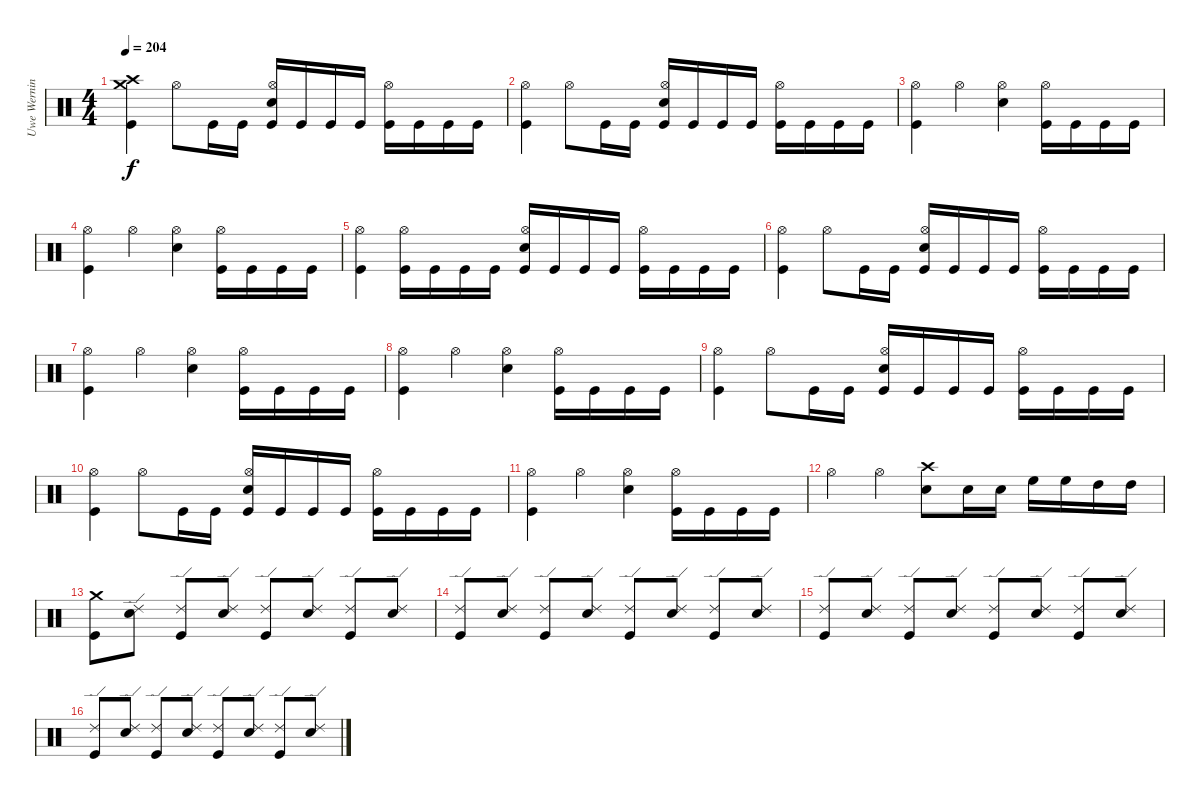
\track ("Uwe Werning" "Uwe Wernin") {instrument percussion}
\staff {score}
\articulation defaults
\ts (4 4)
\tempo 204
\clef neutral
\ks c
("Crash high (hit)" "Crash medium (hit)" "Kick (hit)").4{dy f} "Hi-Hat (open)".8 "Kick (hit)".16 "Kick (hit)".16 ("Hi-Hat (open)" "Snare (hit) 2" "Kick (hit)").16 "Kick (hit)".16 "Kick (hit)".16 "Kick (hit)".16 ("Hi-Hat (open)" "Kick (hit)").16 "Kick (hit)".16 "Kick (hit)".16 "Kick (hit)".16 |
("Hi-Hat (open)" "Kick (hit)").4 "Hi-Hat (open)".8 "Kick (hit)".16 "Kick (hit)".16 ("Hi-Hat (open)" "Snare (hit) 2" "Kick (hit)").16 "Kick (hit)".16 "Kick (hit)".16 "Kick (hit)".16 ("Hi-Hat (open)" "Kick (hit)").16 "Kick (hit)".16 "Kick (hit)".16 "Kick (hit)".16 |
("Hi-Hat (open)" "Kick (hit)").4 "Hi-Hat (open)".4 ("Hi-Hat (open)" "Snare (hit) 2").4 ("Hi-Hat (open)" "Kick (hit)").16 "Kick (hit)".16 "Kick (hit)".16 "Kick (hit)".16 |
("Hi-Hat (open)" "Kick (hit)").4 "Hi-Hat (open)".4 ("Hi-Hat (open)" "Snare (hit) 2").4 ("Hi-Hat (open)" "Kick (hit)").16 "Kick (hit)".16 "Kick (hit)".16 "Kick (hit)".16 |
("Hi-Hat (open)" "Kick (hit)").4 ("Hi-Hat (open)" "Kick (hit)").16 "Kick (hit)".16 "Kick (hit)".16 "Kick (hit)".16 ("Hi-Hat (open)" "Snare (hit) 2" "Kick (hit)").16 "Kick (hit)".16 "Kick (hit)".16 "Kick (hit)".16 ("Hi-Hat (open)" "Kick (hit)").16 "Kick (hit)".16 "Kick (hit)".16 "Kick (hit)".16 |
("Hi-Hat (open)" "Kick (hit)").4 "Hi-Hat (open)".8 "Kick (hit)".16 "Kick (hit)".16 ("Hi-Hat (open)" "Snare (hit) 2" "Kick (hit)").16 "Kick (hit)".16 "Kick (hit)".16 "Kick (hit)".16 ("Hi-Hat (open)" "Kick (hit)").16 "Kick (hit)".16 "Kick (hit)".16 "Kick (hit)".16 |
("Hi-Hat (open)" "Kick (hit)").4 "Hi-Hat (open)".4 ("Hi-Hat (open)" "Snare (hit) 2").4 ("Hi-Hat (open)" "Kick (hit)").16 "Kick (hit)".16 "Kick (hit)".16 "Kick (hit)".16 |
("Hi-Hat (open)" "Kick (hit)").4 "Hi-Hat (open)".4 ("Hi-Hat (open)" "Snare (hit) 2").4 ("Hi-Hat (open)" "Kick (hit)").16 "Kick (hit)".16 "Kick (hit)".16 "Kick (hit)".16 |
("Hi-Hat (open)" "Kick (hit)").4 "Hi-Hat (open)".8 "Kick (hit)".16 "Kick (hit)".16 ("Hi-Hat (open)" "Snare (hit) 2" "Kick (hit)").16 "Kick (hit)".16 "Kick (hit)".16 "Kick (hit)".16 ("Hi-Hat (open)" "Kick (hit)").16 "Kick (hit)".16 "Kick (hit)".16 "Kick (hit)".16 |
("Hi-Hat (open)" "Kick (hit)").4 "Hi-Hat (open)".8 "Kick (hit)".16 "Kick (hit)".16 ("Hi-Hat (open)" "Snare (hit) 2" "Kick (hit)").16 "Kick (hit)".16 "Kick (hit)".16 "Kick (hit)".16 ("Hi-Hat (open)" "Kick (hit)").16 "Kick (hit)".16 "Kick (hit)".16 "Kick (hit)".16 |
("Hi-Hat (open)" "Kick (hit)").4 "Hi-Hat (open)".4 ("Hi-Hat (open)" "Snare (hit) 2").4 ("Hi-Hat (open)" "Kick (hit)").16 "Kick (hit)".16 "Kick (hit)".16 "Kick (hit)".16 |
"Hi-Hat (open)".4 "Hi-Hat (open)".4 ("Crash high (hit)" "Snare (hit) 2").8 "Snare (hit) 2".16 "Snare (hit) 2".16 "High Floor Tom (hit)".16 "High Floor Tom (hit)".16 "High Tom (hit)".16 "High Tom (hit)".16 |
("Crash medium (hit)" "Kick (hit)").8 ("Ride (edge) 2" "Snare (hit) 2").8 ("Ride (edge) 2" "Kick (hit)").8 ("Ride (edge) 2" "Snare (hit) 2").8 ("Ride (edge) 2" "Kick (hit)").8 ("Ride (edge) 2" "Snare (hit) 2").8 ("Ride (edge) 2" "Kick (hit)").8 ("Ride (edge) 2" "Snare (hit) 2").8 |
("Ride (edge) 2" "Kick (hit)").8 ("Ride (edge) 2" "Snare (hit) 2").8 ("Ride (edge) 2" "Kick (hit)").8 ("Ride (edge) 2" "Snare (hit) 2").8 ("Ride (edge) 2" "Kick (hit)").8 ("Ride (edge) 2" "Snare (hit) 2").8 ("Ride (edge) 2" "Kick (hit)").8 ("Ride (edge) 2" "Snare (hit) 2").8 |
("Ride (edge) 2" "Kick (hit)").8 ("Ride (edge) 2" "Snare (hit) 2").8 ("Ride (edge) 2" "Kick (hit)").8 ("Ride (edge) 2" "Snare (hit) 2").8 ("Ride (edge) 2" "Kick (hit)").8 ("Ride (edge) 2" "Snare (hit) 2").8 ("Ride (edge) 2" "Kick (hit)").8 ("Ride (edge) 2" "Snare (hit) 2").8 |
("Ride (edge) 2" "Kick (hit)").8 ("Ride (edge) 2" "Snare (hit) 2").8 ("Ride (edge) 2" "Kick (hit)").8 ("Ride (edge) 2" "Snare (hit) 2").8 ("Ride (edge) 2" "Kick (hit)").8 ("Ride (edge) 2" "Snare (hit) 2").8 ("Ride (edge) 2" "Kick (hit)").8 ("Ride (edge) 2" "Snare (hit) 2").8
